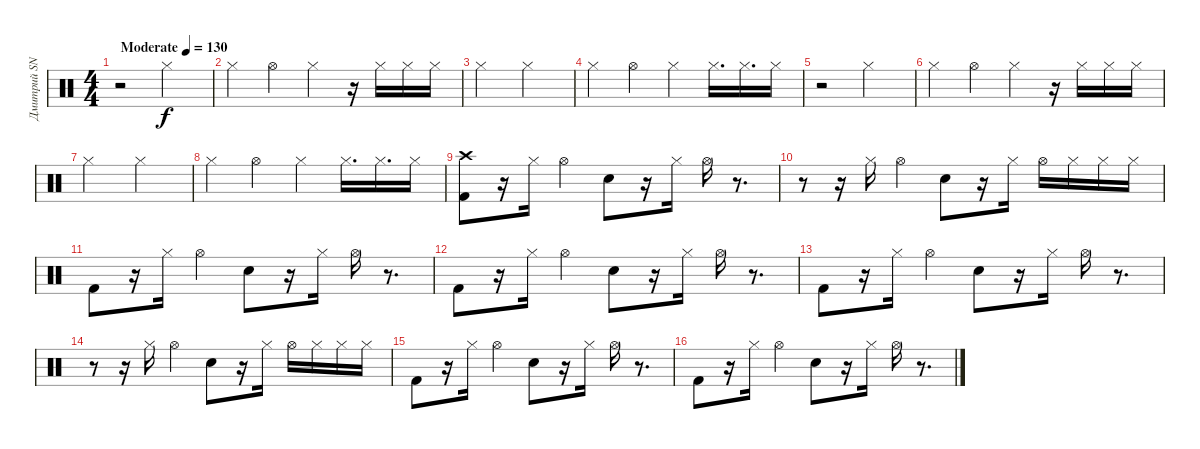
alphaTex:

\track ("Дмитрий SNAKE Хакимов (ударные)" "Дмитрий SN") {instrument percussion}
\staff {score}
\articulation defaults
\ts (4 4)
\tempo (130 "Moderate")
\clef neutral
\ks c
r.2{dy f} "Hi-Hat (closed)".2 |
"Hi-Hat (closed)".4 "Hi-Hat (open)".4 "Hi-Hat (closed)".4 r.16 "Hi-Hat (closed)".16 "Hi-Hat (closed)".16 "Hi-Hat (closed)".16 |
"Hi-Hat (closed)".2 "Hi-Hat (closed)".2 |
"Hi-Hat (closed)".4 "Hi-Hat (open)".4 "Hi-Hat (closed)".4 "Hi-Hat (closed)".16{d} "Hi-Hat (closed)".16{d} "Hi-Hat (closed)".16 |
r.2 "Hi-Hat (closed)".2 |
"Hi-Hat (closed)".4 "Hi-Hat (open)".4 "Hi-Hat (closed)".4 r.16 "Hi-Hat (closed)".16 "Hi-Hat (closed)".16 "Hi-Hat (closed)".16 |
"Hi-Hat (closed)".2 "Hi-Hat (closed)".2 |
"Hi-Hat (closed)".4 "Hi-Hat (open)".4 "Hi-Hat (closed)".4 "Hi-Hat (closed)".16{d} "Hi-Hat (closed)".16{d} "Hi-Hat (closed)".16 |
("Crash high (hit)" "Kick (hit) 2").8 r.16 "Hi-Hat (closed)".16 "Hi-Hat (open)".4 "Snare (hit) 2".8 r.16 "Hi-Hat (closed)".16 "Hi-Hat (open)".16 r.8{d} |
r.8 r.16 "Hi-Hat (closed)".16 "Hi-Hat (open)".4 "Snare (hit) 2".8 r.16 "Hi-Hat (closed)".16 "Hi-Hat (open)".16 "Hi-Hat (closed)".16 "Hi-Hat (closed)".16 "Hi-Hat (closed)".16 |
"Kick (hit) 2".8 r.16 "Hi-Hat (closed)".16 "Hi-Hat (open)".4 "Snare (hit) 2".8 r.16 "Hi-Hat (closed)".16 "Hi-Hat (open)".16 r.8{d} |
"Kick (hit) 2".8 r.16 "Hi-Hat (closed)".16 "Hi-Hat (open)".4 "Snare (hit) 2".8 r.16 "Hi-Hat (closed)".16 "Hi-Hat (open)".16 r.8{d} |
"Kick (hit) 2".8 r.16 "Hi-Hat (closed)".16 "Hi-Hat (open)".4 "Snare (hit) 2".8 r.16 "Hi-Hat (closed)".16 "Hi-Hat (open)".16 r.8{d} |
r.8 r.16 "Hi-Hat (closed)".16 "Hi-Hat (open)".4 "Snare (hit) 2".8 r.16 "Hi-Hat (closed)".16 "Hi-Hat (open)".16 "Hi-Hat (closed)".16 "Hi-Hat (closed)".16 "Hi-Hat (closed)".16 |
"Kick (hit) 2".8 r.16 "Hi-Hat (closed)".16 "Hi-Hat (open)".4 "Snare (hit) 2".8 r.16 "Hi-Hat (closed)".16 "Hi-Hat (open)".16 r.8{d} |
"Kick (hit) 2".8 r.16 "Hi-Hat (closed)".16 "Hi-Hat (open)".4 "Snare (hit) 2".8 r.16 "Hi-Hat (closed)".16 "Hi-Hat (open)".16 r.8{d}
